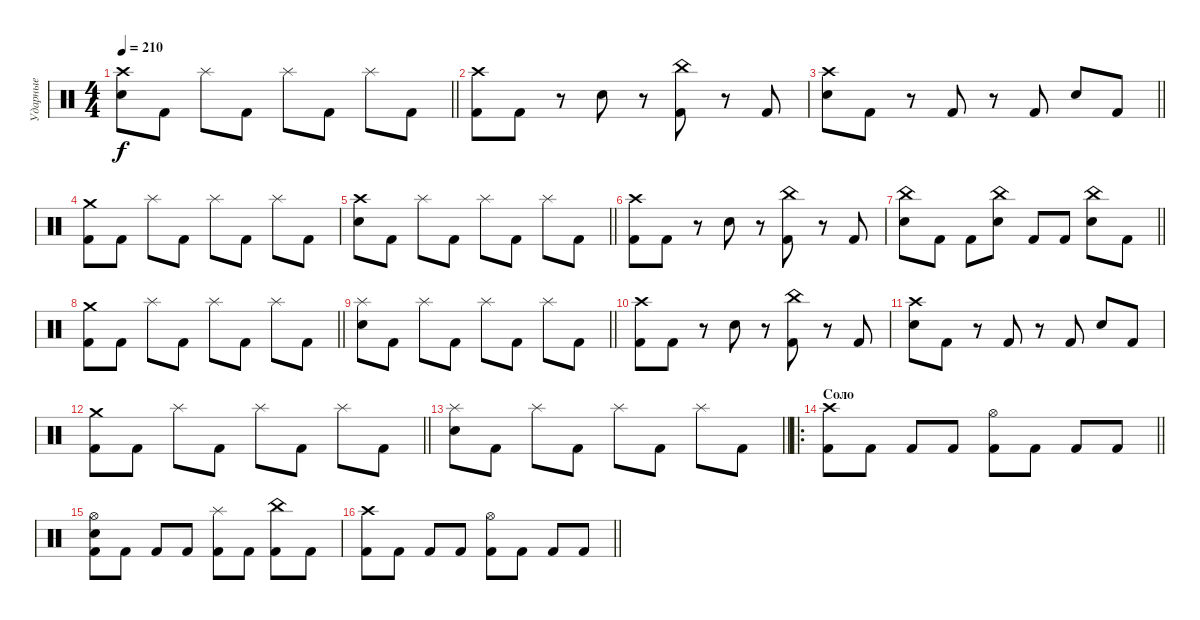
\track ("Ударные" "Ударные") {mute instrument percussion}
\staff {score}
\articulation defaults
\ts (4 4)
\tempo 210
\clef neutral
\barLineRight lightlight
\ks c
("Crash high (hit)" "Electric Snare (hit)").8{dy f} "Kick (hit) 2".8 "Splash (hit)".8 "Kick (hit) 2".8 "Splash (hit)".8 "Kick (hit) 2".8 "Splash (hit)".8 "Kick (hit) 2".8 |
("Crash high (hit)" "Kick (hit) 2").8 "Kick (hit) 2".8 r.8 "Electric Snare (hit)".8 r.8 ("China (hit)" "Kick (hit) 2").8 r.8 "Kick (hit) 2".8 |
\barLineRight lightlight
("Crash high (hit)" "Electric Snare (hit)").8 "Kick (hit) 2".8 r.8 "Kick (hit) 2".8 r.8 "Kick (hit) 2".8 "Electric Snare (hit)".8 "Kick (hit) 2".8 |
("Crash medium (hit)" "Kick (hit) 2").8 "Kick (hit) 2".8 "Splash (hit)".8 "Kick (hit) 2".8 "Splash (hit)".8 "Kick (hit) 2".8 "Splash (hit)".8 "Kick (hit) 2".8 |
\barLineRight lightlight
("Crash high (hit)" "Electric Snare (hit)").8 "Kick (hit) 2".8 "Splash (hit)".8 "Kick (hit) 2".8 "Splash (hit)".8 "Kick (hit) 2".8 "Splash (hit)".8 "Kick (hit) 2".8 |
("Crash high (hit)" "Kick (hit) 2").8 "Kick (hit) 2".8 r.8 "Electric Snare (hit)".8 r.8 ("China (hit)" "Kick (hit) 2").8 r.8 "Kick (hit) 2".8 |
\barLineRight lightlight
("China (hit)" "Electric Snare (hit)").8 "Kick (hit) 2".8 "Kick (hit) 2".8 ("China (hit)" "Electric Snare (hit)").8 "Kick (hit) 2".8 "Kick (hit) 2".8 ("China (hit)" "Electric Snare (hit)").8 "Kick (hit) 2".8 |
\barLineRight lightlight
("Crash medium (hit)" "Kick (hit) 2").8 "Kick (hit) 2".8 "Splash (hit)".8 "Kick (hit) 2".8 "Splash (hit)".8 "Kick (hit) 2".8 "Splash (hit)".8 "Kick (hit) 2".8 |
\barLineRight lightlight
("Splash (hit)" "Electric Snare (hit)").8 "Kick (hit) 2".8 "Splash (hit)".8 "Kick (hit) 2".8 "Splash (hit)".8 "Kick (hit) 2".8 "Splash (hit)".8 "Kick (hit) 2".8 |
("Crash high (hit)" "Kick (hit) 2").8 "Kick (hit) 2".8 r.8 "Electric Snare (hit)".8 r.8 ("China (hit)" "Kick (hit) 2").8 r.8 "Kick (hit) 2".8 |
("Crash high (hit)" "Electric Snare (hit)").8 "Kick (hit) 2".8 r.8 "Kick (hit) 2".8 r.8 "Kick (hit) 2".8 "Electric Snare (hit)".8 "Kick (hit) 2".8 |
\barLineRight lightlight
("Crash medium (hit)" "Kick (hit) 2").8 "Kick (hit) 2".8 "Splash (hit)".8 "Kick (hit) 2".8 "Splash (hit)".8 "Kick (hit) 2".8 "Splash (hit)".8 "Kick (hit) 2".8 |
\barLineRight lightlight
("Splash (hit)" "Electric Snare (hit)").8 "Kick (hit) 2".8 "Splash (hit)".8 "Kick (hit) 2".8 "Splash (hit)".8 "Kick (hit) 2".8 "Splash (hit)".8 "Kick (hit) 2".8 |
\ro
\section ("" "Соло")
\barLineRight lightlight
("Crash high (hit)" "Kick (hit) 2").8 "Kick (hit) 2".8 "Kick (hit) 2".8 "Kick (hit) 2".8 ("Hi-Hat (open)" "Kick (hit) 2").8 "Kick (hit) 2".8 "Kick (hit) 2".8 "Kick (hit) 2".8 |
("Hi-Hat (open)" "Electric Snare (hit)" "Kick (hit) 2").8 "Kick (hit) 2".8 "Kick (hit) 2".8 "Kick (hit) 2".8 ("Splash (hit)" "Kick (hit) 2").8 "Kick (hit) 2".8 ("China (hit)" "Kick (hit) 2").8 "Kick (hit) 2".8 |
\barLineRight lightlight
("Crash high (hit)" "Kick (hit) 2").8 "Kick (hit) 2".8 "Kick (hit) 2".8 "Kick (hit) 2".8 ("Hi-Hat (open)" "Kick (hit) 2").8 "Kick (hit) 2".8 "Kick (hit) 2".8 "Kick (hit) 2".8
